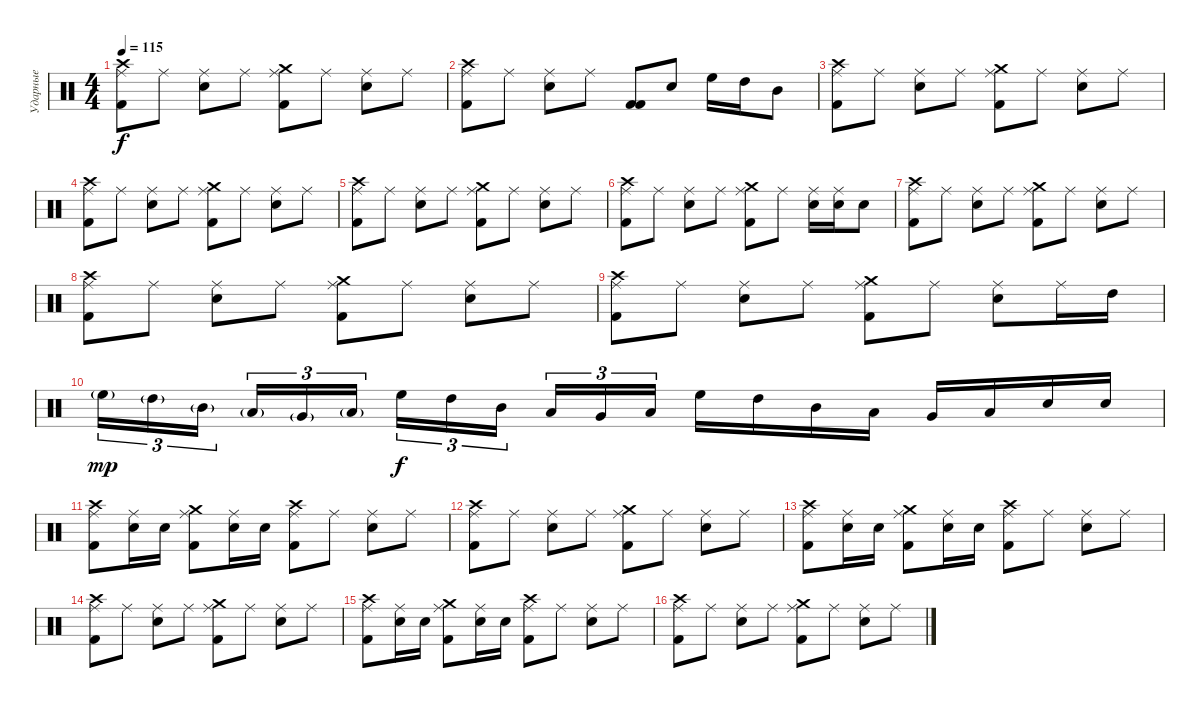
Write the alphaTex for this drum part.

\track ("Ударные" "Ударные") {instrument percussion}
\staff {score}
\articulation defaults
\ts (4 4)
\tempo 115
\clef neutral
\ks c
("Kick (hit) 2" "Crash high (hit)" "Ride (middle)").8{dy f} "Ride (middle)".8 ("Electric Snare (hit)" "Ride (middle)").8 "Ride (middle)".8 ("Kick (hit) 2" "Crash medium (hit)" "Ride (middle)").8 "Ride (middle)".8 ("Electric Snare (hit)" "Ride (middle)").8 "Ride (middle)".8 |
("Kick (hit) 2" "Crash high (hit)" "Ride (middle)").8 "Ride (middle)".8 ("Electric Snare (hit)" "Ride (middle)").8 "Ride (middle)".8 ("Kick (hit) 2" "Kick (hit) 2").8 "Electric Snare (hit)".8 "High Floor Tom (hit)".16 "High Tom (hit)".16 "Mid Tom (hit)".8 |
("Kick (hit) 2" "Crash high (hit)" "Ride (middle)").8 "Ride (middle)".8 ("Electric Snare (hit)" "Ride (middle)").8 "Ride (middle)".8 ("Kick (hit) 2" "Crash medium (hit)" "Ride (middle)").8 "Ride (middle)".8 ("Electric Snare (hit)" "Ride (middle)").8 "Ride (middle)".8 |
("Kick (hit) 2" "Crash high (hit)" "Ride (middle)").8 "Ride (middle)".8 ("Electric Snare (hit)" "Ride (middle)").8 "Ride (middle)".8 ("Kick (hit) 2" "Crash medium (hit)" "Ride (middle)").8 "Ride (middle)".8 ("Electric Snare (hit)" "Ride (middle)").8 "Ride (middle)".8 |
("Kick (hit) 2" "Crash high (hit)" "Ride (middle)").8 "Ride (middle)".8 ("Electric Snare (hit)" "Ride (middle)").8 "Ride (middle)".8 ("Kick (hit) 2" "Crash medium (hit)" "Ride (middle)").8 "Ride (middle)".8 ("Electric Snare (hit)" "Ride (middle)").8 "Ride (middle)".8 |
("Kick (hit) 2" "Crash high (hit)" "Ride (middle)").8 "Ride (middle)".8 ("Electric Snare (hit)" "Ride (middle)").8 "Ride (middle)".8 ("Kick (hit) 2" "Crash medium (hit)" "Ride (middle)").8 "Ride (middle)".8 ("Electric Snare (hit)" "Ride (middle)").16 ("Electric Snare (hit)" "Ride (middle)").16 "Electric Snare (hit)".8 |
("Kick (hit) 2" "Crash high (hit)" "Ride (middle)").8 "Ride (middle)".8 ("Electric Snare (hit)" "Ride (middle)").8 "Ride (middle)".8 ("Kick (hit) 2" "Crash medium (hit)" "Ride (middle)").8 "Ride (middle)".8 ("Electric Snare (hit)" "Ride (middle)").8 "Ride (middle)".8 |
("Kick (hit) 2" "Crash high (hit)" "Ride (middle)").8 "Ride (middle)".8 ("Electric Snare (hit)" "Ride (middle)").8 "Ride (middle)".8 ("Kick (hit) 2" "Crash medium (hit)" "Ride (middle)").8 "Ride (middle)".8 ("Electric Snare (hit)" "Ride (middle)").8 "Ride (middle)".8 |
("Kick (hit) 2" "Crash high (hit)" "Ride (middle)").8 "Ride (middle)".8 ("Electric Snare (hit)" "Ride (middle)").8 "Ride (middle)".8 ("Kick (hit) 2" "Crash medium (hit)" "Ride (middle)").8 "Ride (middle)".8 ("Electric Snare (hit)" "Ride (middle)").8 "Ride (middle)".16 "High Tom (hit)".16 |
"High Floor Tom (hit)"{g}.16{tu (3 2) dy mp} "High Tom (hit)"{g}.16{tu (3 2)} "Mid Tom (hit)"{g}.16{tu (3 2)} "Low Tom (hit)"{g}.16{tu (3 2)} "Very Low Tom (hit)"{g}.16{tu (3 2)} "Low Floor Tom (hit)"{g}.16{tu (3 2)} "High Floor Tom (hit)".16{tu (3 2) dy f} "High Tom (hit)".16{tu (3 2)} "Mid Tom (hit)".16{tu (3 2)} "Low Tom (hit)".16{tu (3 2)} "Very Low Tom (hit)".16{tu (3 2)} "Low Floor Tom (hit)".16{tu (3 2)} "High Floor Tom (hit)".16 "High Tom (hit)".16 "Mid Tom (hit)".16 "Low Tom (hit)".16 "Very Low Tom (hit)".16 "Low Floor Tom (hit)".16 "Electric Snare (hit)".16 "Electric Snare (hit)".16 |
("Kick (hit) 2" "Crash high (hit)" "Ride (middle)").8 ("Electric Snare (hit)" "Ride (middle)").16 "Electric Snare (hit)".16 ("Kick (hit) 2" "Crash medium (hit)" "Ride (middle)").8 ("Electric Snare (hit)" "Ride (middle)").16 "Electric Snare (hit)".16 ("Kick (hit) 2" "Crash high (hit)" "Ride (middle)").8 "Ride (middle)".8 ("Electric Snare (hit)" "Ride (middle)").8 "Ride (middle)".8 |
("Kick (hit) 2" "Crash high (hit)" "Ride (middle)").8 "Ride (middle)".8 ("Electric Snare (hit)" "Ride (middle)").8 "Ride (middle)".8 ("Kick (hit) 2" "Crash medium (hit)" "Ride (middle)").8 "Ride (middle)".8 ("Electric Snare (hit)" "Ride (middle)").8 "Ride (middle)".8 |
("Kick (hit) 2" "Crash high (hit)" "Ride (middle)").8 ("Electric Snare (hit)" "Ride (middle)").16 "Electric Snare (hit)".16 ("Kick (hit) 2" "Crash medium (hit)" "Ride (middle)").8 ("Electric Snare (hit)" "Ride (middle)").16 "Electric Snare (hit)".16 ("Kick (hit) 2" "Crash high (hit)" "Ride (middle)").8 "Ride (middle)".8 ("Electric Snare (hit)" "Ride (middle)").8 "Ride (middle)".8 |
("Kick (hit) 2" "Crash high (hit)" "Ride (middle)").8 "Ride (middle)".8 ("Electric Snare (hit)" "Ride (middle)").8 "Ride (middle)".8 ("Kick (hit) 2" "Crash medium (hit)" "Ride (middle)").8 "Ride (middle)".8 ("Electric Snare (hit)" "Ride (middle)").8 "Ride (middle)".8 |
("Kick (hit) 2" "Crash high (hit)" "Ride (middle)").8 ("Electric Snare (hit)" "Ride (middle)").16 "Electric Snare (hit)".16 ("Kick (hit) 2" "Crash medium (hit)" "Ride (middle)").8 ("Electric Snare (hit)" "Ride (middle)").16 "Electric Snare (hit)".16 ("Kick (hit) 2" "Crash high (hit)" "Ride (middle)").8 "Ride (middle)".8 ("Electric Snare (hit)" "Ride (middle)").8 "Ride (middle)".8 |
("Kick (hit) 2" "Crash high (hit)" "Ride (middle)").8 "Ride (middle)".8 ("Electric Snare (hit)" "Ride (middle)").8 "Ride (middle)".8 ("Kick (hit) 2" "Crash medium (hit)" "Ride (middle)").8 "Ride (middle)".8 ("Electric Snare (hit)" "Ride (middle)").8 "Ride (middle)".8
